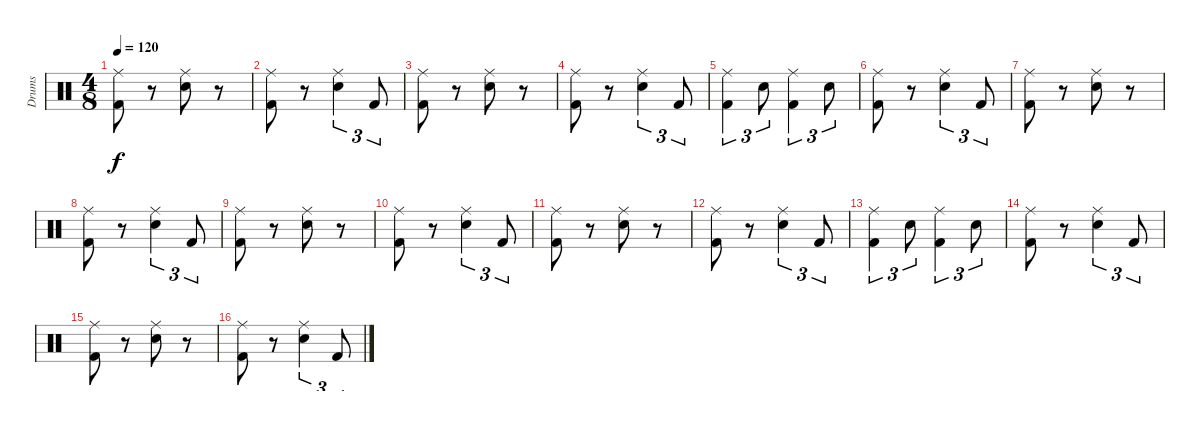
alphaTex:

\track ("Drums" "Drums") {instrument percussion}
\staff {score}
\articulation defaults
\ts (4 8)
\tempo 120
\clef neutral
\ks c
("Ride (middle)" "Kick (hit) 2").8{dy f} r.8 ("Ride (middle)" "Electric Snare (hit)").8 r.8 |
("Ride (middle)" "Kick (hit) 2").8 r.8 ("Ride (middle)" "Electric Snare (hit)").4{tu (3 2)} "Kick (hit) 2".8{tu (3 2)} |
("Ride (middle)" "Kick (hit) 2").8 r.8 ("Ride (middle)" "Electric Snare (hit)").8 r.8 |
("Ride (middle)" "Kick (hit) 2").8 r.8 ("Ride (middle)" "Electric Snare (hit)").4{tu (3 2)} "Kick (hit) 2".8{tu (3 2)} |
("Ride (middle)" "Kick (hit) 2").4{tu (3 2)} "Electric Snare (hit)".8{tu (3 2)} ("Ride (middle)" "Kick (hit) 2").4{tu (3 2)} "Electric Snare (hit)".8{tu (3 2)} |
("Ride (middle)" "Kick (hit) 2").8 r.8 ("Ride (middle)" "Electric Snare (hit)").4{tu (3 2)} "Kick (hit) 2".8{tu (3 2)} |
("Ride (middle)" "Kick (hit) 2").8 r.8 ("Ride (middle)" "Electric Snare (hit)").8 r.8 |
("Ride (middle)" "Kick (hit) 2").8 r.8 ("Ride (middle)" "Electric Snare (hit)").4{tu (3 2)} "Kick (hit) 2".8{tu (3 2)} |
("Ride (middle)" "Kick (hit) 2").8 r.8 ("Ride (middle)" "Electric Snare (hit)").8 r.8 |
("Ride (middle)" "Kick (hit) 2").8 r.8 ("Ride (middle)" "Electric Snare (hit)").4{tu (3 2)} "Kick (hit) 2".8{tu (3 2)} |
("Ride (middle)" "Kick (hit) 2").8 r.8 ("Ride (middle)" "Electric Snare (hit)").8 r.8 |
("Ride (middle)" "Kick (hit) 2").8 r.8 ("Ride (middle)" "Electric Snare (hit)").4{tu (3 2)} "Kick (hit) 2".8{tu (3 2)} |
("Ride (middle)" "Kick (hit) 2").4{tu (3 2)} "Electric Snare (hit)".8{tu (3 2)} ("Ride (middle)" "Kick (hit) 2").4{tu (3 2)} "Electric Snare (hit)".8{tu (3 2)} |
("Ride (middle)" "Kick (hit) 2").8 r.8 ("Ride (middle)" "Electric Snare (hit)").4{tu (3 2)} "Kick (hit) 2".8{tu (3 2)} |
("Ride (middle)" "Kick (hit) 2").8 r.8 ("Ride (middle)" "Electric Snare (hit)").8 r.8 |
("Ride (middle)" "Kick (hit) 2").8 r.8 ("Ride (middle)" "Electric Snare (hit)").4{tu (3 2)} "Kick (hit) 2".8{tu (3 2)}
